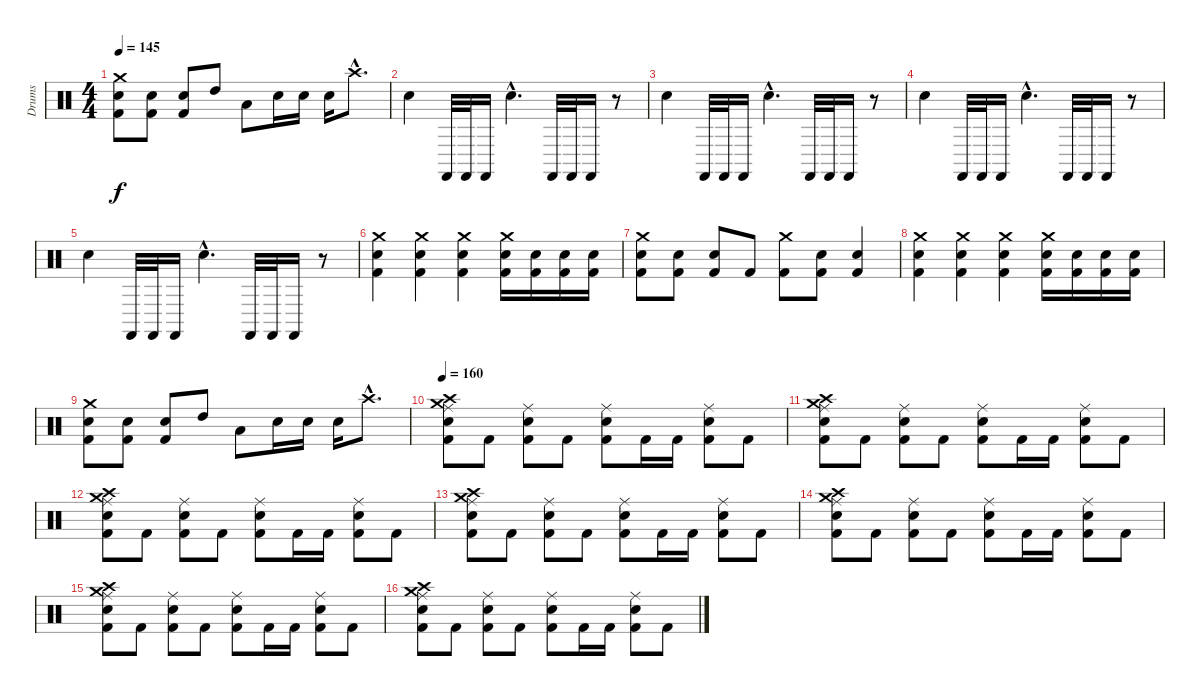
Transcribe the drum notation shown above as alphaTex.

\track ("Drums" "Drums") {instrument percussion}
\staff {score}
\articulation defaults
\ts (4 4)
\tempo 145
\clef neutral
\ks c
("Crash medium (hit)" "Snare (hit) 2" "Kick (hit) 2").8{dy f} ("Snare (hit) 2" "Kick (hit) 2").8 ("Snare (hit) 2" "Kick (hit) 2").8 "High Tom (hit)".8 "Low Tom (hit)".8 "Snare (hit) 2".16 "Snare (hit) 2".16 "Snare (hit) 2".16 "Crash high (hit)"{hac}.8{d} |
"Snare (hit) 2".4 "Castanets (hit)".32 "Castanets (hit)".32 "Castanets (hit)".16 "Snare (hit) 2"{hac}.4{d} "Castanets (hit)".32 "Castanets (hit)".32 "Castanets (hit)".16 r.8 |
"Snare (hit) 2".4 "Castanets (hit)".32 "Castanets (hit)".32 "Castanets (hit)".16 "Snare (hit) 2"{hac}.4{d} "Castanets (hit)".32 "Castanets (hit)".32 "Castanets (hit)".16 r.8 |
"Snare (hit) 2".4 "Castanets (hit)".32 "Castanets (hit)".32 "Castanets (hit)".16 "Snare (hit) 2"{hac}.4{d} "Castanets (hit)".32 "Castanets (hit)".32 "Castanets (hit)".16 r.8 |
"Snare (hit) 2".4 "Castanets (hit)".32 "Castanets (hit)".32 "Castanets (hit)".16 "Snare (hit) 2"{hac}.4{d} "Castanets (hit)".32 "Castanets (hit)".32 "Castanets (hit)".16 r.8 |
("Crash medium (hit)" "Snare (hit) 2" "Kick (hit) 2").4 ("Crash medium (hit)" "Snare (hit) 2" "Kick (hit) 2").4 ("Crash medium (hit)" "Snare (hit) 2" "Kick (hit) 2").4 ("Crash medium (hit)" "Snare (hit) 2" "Kick (hit) 2").16 ("Snare (hit) 2" "Kick (hit) 2").16 ("Snare (hit) 2" "Kick (hit) 2").16 ("Snare (hit) 2" "Kick (hit) 2").16 |
("Crash medium (hit)" "Snare (hit) 2" "Kick (hit) 2").8 ("Snare (hit) 2" "Kick (hit) 2").8 ("Snare (hit) 2" "Kick (hit) 2").8 "Kick (hit) 2".8 ("Crash medium (hit)" "Kick (hit) 2").8 ("Snare (hit) 2" "Kick (hit) 2").8 ("Snare (hit) 2" "Kick (hit) 2").4 |
("Crash medium (hit)" "Snare (hit) 2" "Kick (hit) 2").4 ("Crash medium (hit)" "Snare (hit) 2" "Kick (hit) 2").4 ("Crash medium (hit)" "Snare (hit) 2" "Kick (hit) 2").4 ("Crash medium (hit)" "Snare (hit) 2" "Kick (hit) 2").16 ("Snare (hit) 2" "Kick (hit) 2").16 ("Snare (hit) 2" "Kick (hit) 2").16 ("Snare (hit) 2" "Kick (hit) 2").16 |
("Crash medium (hit)" "Snare (hit) 2" "Kick (hit) 2").8 ("Snare (hit) 2" "Kick (hit) 2").8 ("Snare (hit) 2" "Kick (hit) 2").8 "High Tom (hit)".8 "Low Tom (hit)".8 "Snare (hit) 2".16 "Snare (hit) 2".16 "Snare (hit) 2".16 "Crash high (hit)"{hac}.8{d} |
\tempo 160
("Crash medium (hit)" "Crash high (hit)" "Ride (middle)" "Snare (hit) 2" "Kick (hit) 2").8 "Kick (hit) 2".8 ("Ride (middle)" "Snare (hit) 2" "Kick (hit) 2").8 "Kick (hit) 2".8 ("Ride (middle)" "Snare (hit) 2" "Kick (hit) 2").8 "Kick (hit) 2".16 "Kick (hit) 2".16 ("Ride (middle)" "Snare (hit) 2" "Kick (hit) 2").8 "Kick (hit) 2".8 |
("Crash medium (hit)" "Crash high (hit)" "Ride (middle)" "Snare (hit) 2" "Kick (hit) 2").8 "Kick (hit) 2".8 ("Ride (middle)" "Snare (hit) 2" "Kick (hit) 2").8 "Kick (hit) 2".8 ("Ride (middle)" "Snare (hit) 2" "Kick (hit) 2").8 "Kick (hit) 2".16 "Kick (hit) 2".16 ("Ride (middle)" "Snare (hit) 2" "Kick (hit) 2").8 "Kick (hit) 2".8 |
("Crash medium (hit)" "Crash high (hit)" "Ride (middle)" "Snare (hit) 2" "Kick (hit) 2").8 "Kick (hit) 2".8 ("Ride (middle)" "Snare (hit) 2" "Kick (hit) 2").8 "Kick (hit) 2".8 ("Ride (middle)" "Snare (hit) 2" "Kick (hit) 2").8 "Kick (hit) 2".16 "Kick (hit) 2".16 ("Ride (middle)" "Snare (hit) 2" "Kick (hit) 2").8 "Kick (hit) 2".8 |
("Crash medium (hit)" "Crash high (hit)" "Ride (middle)" "Snare (hit) 2" "Kick (hit) 2").8 "Kick (hit) 2".8 ("Ride (middle)" "Snare (hit) 2" "Kick (hit) 2").8 "Kick (hit) 2".8 ("Ride (middle)" "Snare (hit) 2" "Kick (hit) 2").8 "Kick (hit) 2".16 "Kick (hit) 2".16 ("Ride (middle)" "Snare (hit) 2" "Kick (hit) 2").8 "Kick (hit) 2".8 |
("Crash medium (hit)" "Crash high (hit)" "Ride (middle)" "Snare (hit) 2" "Kick (hit) 2").8 "Kick (hit) 2".8 ("Ride (middle)" "Snare (hit) 2" "Kick (hit) 2").8 "Kick (hit) 2".8 ("Ride (middle)" "Snare (hit) 2" "Kick (hit) 2").8 "Kick (hit) 2".16 "Kick (hit) 2".16 ("Ride (middle)" "Snare (hit) 2" "Kick (hit) 2").8 "Kick (hit) 2".8 |
("Crash medium (hit)" "Crash high (hit)" "Ride (middle)" "Snare (hit) 2" "Kick (hit) 2").8 "Kick (hit) 2".8 ("Ride (middle)" "Snare (hit) 2" "Kick (hit) 2").8 "Kick (hit) 2".8 ("Ride (middle)" "Snare (hit) 2" "Kick (hit) 2").8 "Kick (hit) 2".16 "Kick (hit) 2".16 ("Ride (middle)" "Snare (hit) 2" "Kick (hit) 2").8 "Kick (hit) 2".8 |
("Crash medium (hit)" "Crash high (hit)" "Ride (middle)" "Snare (hit) 2" "Kick (hit) 2").8 "Kick (hit) 2".8 ("Ride (middle)" "Snare (hit) 2" "Kick (hit) 2").8 "Kick (hit) 2".8 ("Ride (middle)" "Snare (hit) 2" "Kick (hit) 2").8 "Kick (hit) 2".16 "Kick (hit) 2".16 ("Ride (middle)" "Snare (hit) 2" "Kick (hit) 2").8 "Kick (hit) 2".8
